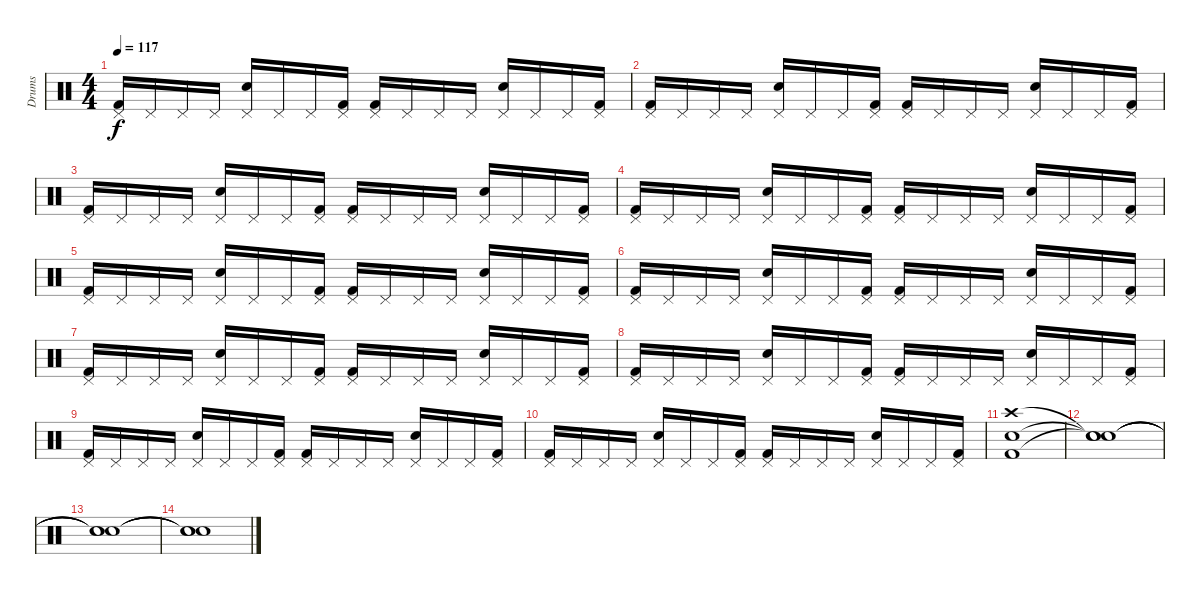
\track ("Drums" "Drums") {instrument percussion}
\staff {score}
\articulation defaults
\ts (4 4)
\tempo 117
\clef neutral
\ks c
("Kick (hit) 2" "Pedal Hi-Hat (hit)").16{dy f} "Pedal Hi-Hat (hit)".16 "Pedal Hi-Hat (hit)".16 "Pedal Hi-Hat (hit)".16 ("Snare (hit) 2" "Pedal Hi-Hat (hit)").16 "Pedal Hi-Hat (hit)".16 "Pedal Hi-Hat (hit)".16 ("Kick (hit) 2" "Pedal Hi-Hat (hit)").16 ("Kick (hit) 2" "Pedal Hi-Hat (hit)").16 "Pedal Hi-Hat (hit)".16 "Pedal Hi-Hat (hit)".16 "Pedal Hi-Hat (hit)".16 ("Snare (hit) 2" "Pedal Hi-Hat (hit)").16 "Pedal Hi-Hat (hit)".16 "Pedal Hi-Hat (hit)".16 ("Kick (hit) 2" "Pedal Hi-Hat (hit)").16 |
("Kick (hit) 2" "Pedal Hi-Hat (hit)").16 "Pedal Hi-Hat (hit)".16 "Pedal Hi-Hat (hit)".16 "Pedal Hi-Hat (hit)".16 ("Snare (hit) 2" "Pedal Hi-Hat (hit)").16 "Pedal Hi-Hat (hit)".16 "Pedal Hi-Hat (hit)".16 ("Kick (hit) 2" "Pedal Hi-Hat (hit)").16 ("Kick (hit) 2" "Pedal Hi-Hat (hit)").16 "Pedal Hi-Hat (hit)".16 "Pedal Hi-Hat (hit)".16 "Pedal Hi-Hat (hit)".16 ("Snare (hit) 2" "Pedal Hi-Hat (hit)").16 "Pedal Hi-Hat (hit)".16 "Pedal Hi-Hat (hit)".16 ("Kick (hit) 2" "Pedal Hi-Hat (hit)").16 |
("Kick (hit) 2" "Pedal Hi-Hat (hit)").16 "Pedal Hi-Hat (hit)".16 "Pedal Hi-Hat (hit)".16 "Pedal Hi-Hat (hit)".16 ("Snare (hit) 2" "Pedal Hi-Hat (hit)").16 "Pedal Hi-Hat (hit)".16 "Pedal Hi-Hat (hit)".16 ("Kick (hit) 2" "Pedal Hi-Hat (hit)").16 ("Kick (hit) 2" "Pedal Hi-Hat (hit)").16 "Pedal Hi-Hat (hit)".16 "Pedal Hi-Hat (hit)".16 "Pedal Hi-Hat (hit)".16 ("Snare (hit) 2" "Pedal Hi-Hat (hit)").16 "Pedal Hi-Hat (hit)".16 "Pedal Hi-Hat (hit)".16 ("Kick (hit) 2" "Pedal Hi-Hat (hit)").16 |
("Kick (hit) 2" "Pedal Hi-Hat (hit)").16 "Pedal Hi-Hat (hit)".16 "Pedal Hi-Hat (hit)".16 "Pedal Hi-Hat (hit)".16 ("Snare (hit) 2" "Pedal Hi-Hat (hit)").16 "Pedal Hi-Hat (hit)".16 "Pedal Hi-Hat (hit)".16 ("Kick (hit) 2" "Pedal Hi-Hat (hit)").16 ("Kick (hit) 2" "Pedal Hi-Hat (hit)").16 "Pedal Hi-Hat (hit)".16 "Pedal Hi-Hat (hit)".16 "Pedal Hi-Hat (hit)".16 ("Snare (hit) 2" "Pedal Hi-Hat (hit)").16 "Pedal Hi-Hat (hit)".16 "Pedal Hi-Hat (hit)".16 ("Kick (hit) 2" "Pedal Hi-Hat (hit)").16 |
("Kick (hit) 2" "Pedal Hi-Hat (hit)").16 "Pedal Hi-Hat (hit)".16 "Pedal Hi-Hat (hit)".16 "Pedal Hi-Hat (hit)".16 ("Snare (hit) 2" "Pedal Hi-Hat (hit)").16 "Pedal Hi-Hat (hit)".16 "Pedal Hi-Hat (hit)".16 ("Kick (hit) 2" "Pedal Hi-Hat (hit)").16 ("Kick (hit) 2" "Pedal Hi-Hat (hit)").16 "Pedal Hi-Hat (hit)".16 "Pedal Hi-Hat (hit)".16 "Pedal Hi-Hat (hit)".16 ("Snare (hit) 2" "Pedal Hi-Hat (hit)").16 "Pedal Hi-Hat (hit)".16 "Pedal Hi-Hat (hit)".16 ("Kick (hit) 2" "Pedal Hi-Hat (hit)").16 |
("Kick (hit) 2" "Pedal Hi-Hat (hit)").16 "Pedal Hi-Hat (hit)".16 "Pedal Hi-Hat (hit)".16 "Pedal Hi-Hat (hit)".16 ("Snare (hit) 2" "Pedal Hi-Hat (hit)").16 "Pedal Hi-Hat (hit)".16 "Pedal Hi-Hat (hit)".16 ("Kick (hit) 2" "Pedal Hi-Hat (hit)").16 ("Kick (hit) 2" "Pedal Hi-Hat (hit)").16 "Pedal Hi-Hat (hit)".16 "Pedal Hi-Hat (hit)".16 "Pedal Hi-Hat (hit)".16 ("Snare (hit) 2" "Pedal Hi-Hat (hit)").16 "Pedal Hi-Hat (hit)".16 "Pedal Hi-Hat (hit)".16 ("Kick (hit) 2" "Pedal Hi-Hat (hit)").16 |
("Kick (hit) 2" "Pedal Hi-Hat (hit)").16 "Pedal Hi-Hat (hit)".16 "Pedal Hi-Hat (hit)".16 "Pedal Hi-Hat (hit)".16 ("Snare (hit) 2" "Pedal Hi-Hat (hit)").16 "Pedal Hi-Hat (hit)".16 "Pedal Hi-Hat (hit)".16 ("Kick (hit) 2" "Pedal Hi-Hat (hit)").16 ("Kick (hit) 2" "Pedal Hi-Hat (hit)").16 "Pedal Hi-Hat (hit)".16 "Pedal Hi-Hat (hit)".16 "Pedal Hi-Hat (hit)".16 ("Snare (hit) 2" "Pedal Hi-Hat (hit)").16 "Pedal Hi-Hat (hit)".16 "Pedal Hi-Hat (hit)".16 ("Kick (hit) 2" "Pedal Hi-Hat (hit)").16 |
("Kick (hit) 2" "Pedal Hi-Hat (hit)").16 "Pedal Hi-Hat (hit)".16 "Pedal Hi-Hat (hit)".16 "Pedal Hi-Hat (hit)".16 ("Snare (hit) 2" "Pedal Hi-Hat (hit)").16 "Pedal Hi-Hat (hit)".16 "Pedal Hi-Hat (hit)".16 ("Kick (hit) 2" "Pedal Hi-Hat (hit)").16 ("Kick (hit) 2" "Pedal Hi-Hat (hit)").16 "Pedal Hi-Hat (hit)".16 "Pedal Hi-Hat (hit)".16 "Pedal Hi-Hat (hit)".16 ("Snare (hit) 2" "Pedal Hi-Hat (hit)").16 "Pedal Hi-Hat (hit)".16 "Pedal Hi-Hat (hit)".16 ("Kick (hit) 2" "Pedal Hi-Hat (hit)").16 |
("Kick (hit) 2" "Pedal Hi-Hat (hit)").16 "Pedal Hi-Hat (hit)".16 "Pedal Hi-Hat (hit)".16 "Pedal Hi-Hat (hit)".16 ("Snare (hit) 2" "Pedal Hi-Hat (hit)").16 "Pedal Hi-Hat (hit)".16 "Pedal Hi-Hat (hit)".16 ("Kick (hit) 2" "Pedal Hi-Hat (hit)").16 ("Kick (hit) 2" "Pedal Hi-Hat (hit)").16 "Pedal Hi-Hat (hit)".16 "Pedal Hi-Hat (hit)".16 "Pedal Hi-Hat (hit)".16 ("Snare (hit) 2" "Pedal Hi-Hat (hit)").16 "Pedal Hi-Hat (hit)".16 "Pedal Hi-Hat (hit)".16 ("Kick (hit) 2" "Pedal Hi-Hat (hit)").16 |
("Kick (hit) 2" "Pedal Hi-Hat (hit)").16 "Pedal Hi-Hat (hit)".16 "Pedal Hi-Hat (hit)".16 "Pedal Hi-Hat (hit)".16 ("Snare (hit) 2" "Pedal Hi-Hat (hit)").16 "Pedal Hi-Hat (hit)".16 "Pedal Hi-Hat (hit)".16 ("Kick (hit) 2" "Pedal Hi-Hat (hit)").16 ("Kick (hit) 2" "Pedal Hi-Hat (hit)").16 "Pedal Hi-Hat (hit)".16 "Pedal Hi-Hat (hit)".16 "Pedal Hi-Hat (hit)".16 ("Snare (hit) 2" "Pedal Hi-Hat (hit)").16 "Pedal Hi-Hat (hit)".16 "Pedal Hi-Hat (hit)".16 ("Kick (hit) 2" "Pedal Hi-Hat (hit)").16 |
("Kick (hit) 2" "Snare (hit) 2" "Crash high (hit)").1 |
("Snare (hit)"{t} "Snare (hit)"{t} "Snare (hit)"{t}).1 |
("Snare (hit)"{t} "Snare (hit)"{t} "Snare (hit)"{t}).1 |
("Snare (hit)"{t} "Snare (hit)"{t} "Snare (hit)"{t}).1
